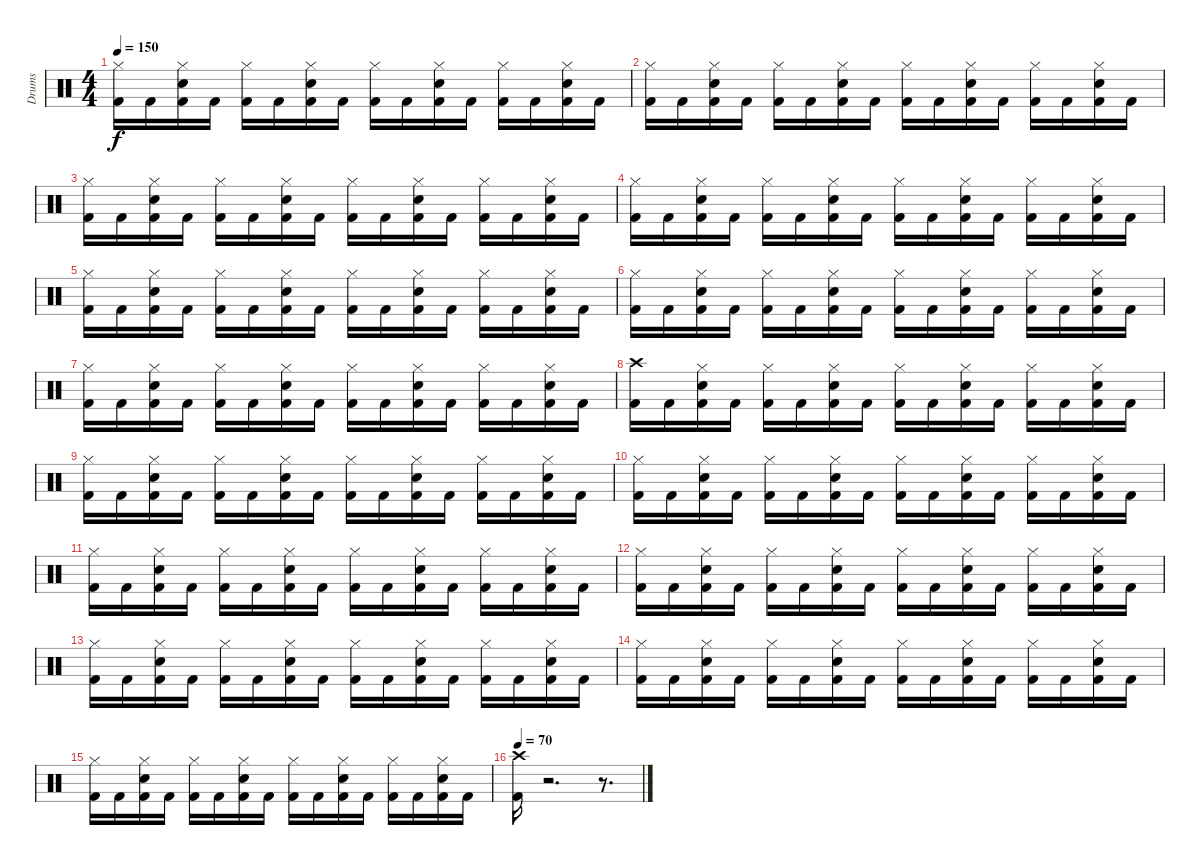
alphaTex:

\track ("Drums" "Drums") {instrument percussion}
\staff {score}
\articulation defaults
\ts (4 4)
\tempo 150
\clef neutral
\ks c
("Hi-Hat (closed)" "Kick (hit) 2").16{dy f} "Kick (hit) 2".16 ("Hi-Hat (closed)" "Electric Snare (hit)" "Kick (hit) 2").16 "Kick (hit) 2".16 ("Hi-Hat (closed)" "Kick (hit) 2").16 "Kick (hit) 2".16 ("Hi-Hat (closed)" "Electric Snare (hit)" "Kick (hit) 2").16 "Kick (hit) 2".16 ("Hi-Hat (closed)" "Kick (hit) 2").16 "Kick (hit) 2".16 ("Hi-Hat (closed)" "Electric Snare (hit)" "Kick (hit) 2").16 "Kick (hit) 2".16 ("Hi-Hat (closed)" "Kick (hit) 2").16 "Kick (hit) 2".16 ("Hi-Hat (closed)" "Electric Snare (hit)" "Kick (hit) 2").16 "Kick (hit) 2".16 |
("Hi-Hat (closed)" "Kick (hit) 2").16 "Kick (hit) 2".16 ("Hi-Hat (closed)" "Electric Snare (hit)" "Kick (hit) 2").16 "Kick (hit) 2".16 ("Hi-Hat (closed)" "Kick (hit) 2").16 "Kick (hit) 2".16 ("Hi-Hat (closed)" "Electric Snare (hit)" "Kick (hit) 2").16 "Kick (hit) 2".16 ("Hi-Hat (closed)" "Kick (hit) 2").16 "Kick (hit) 2".16 ("Hi-Hat (closed)" "Electric Snare (hit)" "Kick (hit) 2").16 "Kick (hit) 2".16 ("Hi-Hat (closed)" "Kick (hit) 2").16 "Kick (hit) 2".16 ("Hi-Hat (closed)" "Electric Snare (hit)" "Kick (hit) 2").16 "Kick (hit) 2".16 |
("Hi-Hat (closed)" "Kick (hit) 2").16 "Kick (hit) 2".16 ("Hi-Hat (closed)" "Electric Snare (hit)" "Kick (hit) 2").16 "Kick (hit) 2".16 ("Hi-Hat (closed)" "Kick (hit) 2").16 "Kick (hit) 2".16 ("Hi-Hat (closed)" "Electric Snare (hit)" "Kick (hit) 2").16 "Kick (hit) 2".16 ("Hi-Hat (closed)" "Kick (hit) 2").16 "Kick (hit) 2".16 ("Hi-Hat (closed)" "Electric Snare (hit)" "Kick (hit) 2").16 "Kick (hit) 2".16 ("Hi-Hat (closed)" "Kick (hit) 2").16 "Kick (hit) 2".16 ("Hi-Hat (closed)" "Electric Snare (hit)" "Kick (hit) 2").16 "Kick (hit) 2".16 |
("Hi-Hat (closed)" "Kick (hit) 2").16 "Kick (hit) 2".16 ("Hi-Hat (closed)" "Electric Snare (hit)" "Kick (hit) 2").16 "Kick (hit) 2".16 ("Hi-Hat (closed)" "Kick (hit) 2").16 "Kick (hit) 2".16 ("Hi-Hat (closed)" "Electric Snare (hit)" "Kick (hit) 2").16 "Kick (hit) 2".16 ("Hi-Hat (closed)" "Kick (hit) 2").16 "Kick (hit) 2".16 ("Hi-Hat (closed)" "Electric Snare (hit)" "Kick (hit) 2").16 "Kick (hit) 2".16 ("Hi-Hat (closed)" "Kick (hit) 2").16 "Kick (hit) 2".16 ("Hi-Hat (closed)" "Electric Snare (hit)" "Kick (hit) 2").16 "Kick (hit) 2".16 |
("Hi-Hat (closed)" "Kick (hit) 2").16 "Kick (hit) 2".16 ("Hi-Hat (closed)" "Electric Snare (hit)" "Kick (hit) 2").16 "Kick (hit) 2".16 ("Hi-Hat (closed)" "Kick (hit) 2").16 "Kick (hit) 2".16 ("Hi-Hat (closed)" "Electric Snare (hit)" "Kick (hit) 2").16 "Kick (hit) 2".16 ("Hi-Hat (closed)" "Kick (hit) 2").16 "Kick (hit) 2".16 ("Hi-Hat (closed)" "Electric Snare (hit)" "Kick (hit) 2").16 "Kick (hit) 2".16 ("Hi-Hat (closed)" "Kick (hit) 2").16 "Kick (hit) 2".16 ("Hi-Hat (closed)" "Electric Snare (hit)" "Kick (hit) 2").16 "Kick (hit) 2".16 |
("Hi-Hat (closed)" "Kick (hit) 2").16 "Kick (hit) 2".16 ("Hi-Hat (closed)" "Electric Snare (hit)" "Kick (hit) 2").16 "Kick (hit) 2".16 ("Hi-Hat (closed)" "Kick (hit) 2").16 "Kick (hit) 2".16 ("Hi-Hat (closed)" "Electric Snare (hit)" "Kick (hit) 2").16 "Kick (hit) 2".16 ("Hi-Hat (closed)" "Kick (hit) 2").16 "Kick (hit) 2".16 ("Hi-Hat (closed)" "Electric Snare (hit)" "Kick (hit) 2").16 "Kick (hit) 2".16 ("Hi-Hat (closed)" "Kick (hit) 2").16 "Kick (hit) 2".16 ("Hi-Hat (closed)" "Electric Snare (hit)" "Kick (hit) 2").16 "Kick (hit) 2".16 |
("Hi-Hat (closed)" "Kick (hit) 2").16 "Kick (hit) 2".16 ("Hi-Hat (closed)" "Electric Snare (hit)" "Kick (hit) 2").16 "Kick (hit) 2".16 ("Hi-Hat (closed)" "Kick (hit) 2").16 "Kick (hit) 2".16 ("Hi-Hat (closed)" "Electric Snare (hit)" "Kick (hit) 2").16 "Kick (hit) 2".16 ("Hi-Hat (closed)" "Kick (hit) 2").16 "Kick (hit) 2".16 ("Hi-Hat (closed)" "Electric Snare (hit)" "Kick (hit) 2").16 "Kick (hit) 2".16 ("Hi-Hat (closed)" "Kick (hit) 2").16 "Kick (hit) 2".16 ("Hi-Hat (closed)" "Electric Snare (hit)" "Kick (hit) 2").16 "Kick (hit) 2".16 |
("Crash high (hit)" "Kick (hit) 2").16 "Kick (hit) 2".16 ("Hi-Hat (closed)" "Electric Snare (hit)" "Kick (hit) 2").16 "Kick (hit) 2".16 ("Hi-Hat (closed)" "Kick (hit) 2").16 "Kick (hit) 2".16 ("Hi-Hat (closed)" "Electric Snare (hit)" "Kick (hit) 2").16 "Kick (hit) 2".16 ("Hi-Hat (closed)" "Kick (hit) 2").16 "Kick (hit) 2".16 ("Hi-Hat (closed)" "Electric Snare (hit)" "Kick (hit) 2").16 "Kick (hit) 2".16 ("Hi-Hat (closed)" "Kick (hit) 2").16 "Kick (hit) 2".16 ("Hi-Hat (closed)" "Electric Snare (hit)" "Kick (hit) 2").16 "Kick (hit) 2".16 |
("Hi-Hat (closed)" "Kick (hit) 2").16 "Kick (hit) 2".16 ("Hi-Hat (closed)" "Electric Snare (hit)" "Kick (hit) 2").16 "Kick (hit) 2".16 ("Hi-Hat (closed)" "Kick (hit) 2").16 "Kick (hit) 2".16 ("Hi-Hat (closed)" "Electric Snare (hit)" "Kick (hit) 2").16 "Kick (hit) 2".16 ("Hi-Hat (closed)" "Kick (hit) 2").16 "Kick (hit) 2".16 ("Hi-Hat (closed)" "Electric Snare (hit)" "Kick (hit) 2").16 "Kick (hit) 2".16 ("Hi-Hat (closed)" "Kick (hit) 2").16 "Kick (hit) 2".16 ("Hi-Hat (closed)" "Electric Snare (hit)" "Kick (hit) 2").16 "Kick (hit) 2".16 |
("Hi-Hat (closed)" "Kick (hit) 2").16 "Kick (hit) 2".16 ("Hi-Hat (closed)" "Electric Snare (hit)" "Kick (hit) 2").16 "Kick (hit) 2".16 ("Hi-Hat (closed)" "Kick (hit) 2").16 "Kick (hit) 2".16 ("Hi-Hat (closed)" "Electric Snare (hit)" "Kick (hit) 2").16 "Kick (hit) 2".16 ("Hi-Hat (closed)" "Kick (hit) 2").16 "Kick (hit) 2".16 ("Hi-Hat (closed)" "Electric Snare (hit)" "Kick (hit) 2").16 "Kick (hit) 2".16 ("Hi-Hat (closed)" "Kick (hit) 2").16 "Kick (hit) 2".16 ("Hi-Hat (closed)" "Electric Snare (hit)" "Kick (hit) 2").16 "Kick (hit) 2".16 |
("Hi-Hat (closed)" "Kick (hit) 2").16 "Kick (hit) 2".16 ("Hi-Hat (closed)" "Electric Snare (hit)" "Kick (hit) 2").16 "Kick (hit) 2".16 ("Hi-Hat (closed)" "Kick (hit) 2").16 "Kick (hit) 2".16 ("Hi-Hat (closed)" "Electric Snare (hit)" "Kick (hit) 2").16 "Kick (hit) 2".16 ("Hi-Hat (closed)" "Kick (hit) 2").16 "Kick (hit) 2".16 ("Hi-Hat (closed)" "Electric Snare (hit)" "Kick (hit) 2").16 "Kick (hit) 2".16 ("Hi-Hat (closed)" "Kick (hit) 2").16 "Kick (hit) 2".16 ("Hi-Hat (closed)" "Electric Snare (hit)" "Kick (hit) 2").16 "Kick (hit) 2".16 |
("Hi-Hat (closed)" "Kick (hit) 2").16 "Kick (hit) 2".16 ("Hi-Hat (closed)" "Electric Snare (hit)" "Kick (hit) 2").16 "Kick (hit) 2".16 ("Hi-Hat (closed)" "Kick (hit) 2").16 "Kick (hit) 2".16 ("Hi-Hat (closed)" "Electric Snare (hit)" "Kick (hit) 2").16 "Kick (hit) 2".16 ("Hi-Hat (closed)" "Kick (hit) 2").16 "Kick (hit) 2".16 ("Hi-Hat (closed)" "Electric Snare (hit)" "Kick (hit) 2").16 "Kick (hit) 2".16 ("Hi-Hat (closed)" "Kick (hit) 2").16 "Kick (hit) 2".16 ("Hi-Hat (closed)" "Electric Snare (hit)" "Kick (hit) 2").16 "Kick (hit) 2".16 |
("Hi-Hat (closed)" "Kick (hit) 2").16 "Kick (hit) 2".16 ("Hi-Hat (closed)" "Electric Snare (hit)" "Kick (hit) 2").16 "Kick (hit) 2".16 ("Hi-Hat (closed)" "Kick (hit) 2").16 "Kick (hit) 2".16 ("Hi-Hat (closed)" "Electric Snare (hit)" "Kick (hit) 2").16 "Kick (hit) 2".16 ("Hi-Hat (closed)" "Kick (hit) 2").16 "Kick (hit) 2".16 ("Hi-Hat (closed)" "Electric Snare (hit)" "Kick (hit) 2").16 "Kick (hit) 2".16 ("Hi-Hat (closed)" "Kick (hit) 2").16 "Kick (hit) 2".16 ("Hi-Hat (closed)" "Electric Snare (hit)" "Kick (hit) 2").16 "Kick (hit) 2".16 |
("Hi-Hat (closed)" "Kick (hit) 2").16 "Kick (hit) 2".16 ("Hi-Hat (closed)" "Electric Snare (hit)" "Kick (hit) 2").16 "Kick (hit) 2".16 ("Hi-Hat (closed)" "Kick (hit) 2").16 "Kick (hit) 2".16 ("Hi-Hat (closed)" "Electric Snare (hit)" "Kick (hit) 2").16 "Kick (hit) 2".16 ("Hi-Hat (closed)" "Kick (hit) 2").16 "Kick (hit) 2".16 ("Hi-Hat (closed)" "Electric Snare (hit)" "Kick (hit) 2").16 "Kick (hit) 2".16 ("Hi-Hat (closed)" "Kick (hit) 2").16 "Kick (hit) 2".16 ("Hi-Hat (closed)" "Electric Snare (hit)" "Kick (hit) 2").16 "Kick (hit) 2".16 |
("Hi-Hat (closed)" "Kick (hit) 2").16 "Kick (hit) 2".16 ("Hi-Hat (closed)" "Electric Snare (hit)" "Kick (hit) 2").16 "Kick (hit) 2".16 ("Hi-Hat (closed)" "Kick (hit) 2").16 "Kick (hit) 2".16 ("Hi-Hat (closed)" "Electric Snare (hit)" "Kick (hit) 2").16 "Kick (hit) 2".16 ("Hi-Hat (closed)" "Kick (hit) 2").16 "Kick (hit) 2".16 ("Hi-Hat (closed)" "Electric Snare (hit)" "Kick (hit) 2").16 "Kick (hit) 2".16 ("Hi-Hat (closed)" "Kick (hit) 2").16 "Kick (hit) 2".16 ("Hi-Hat (closed)" "Electric Snare (hit)" "Kick (hit) 2").16 "Kick (hit) 2".16 |
\tempo 70
("Crash high (hit)" "Kick (hit) 2").16 r.2{d} r.8{d}
